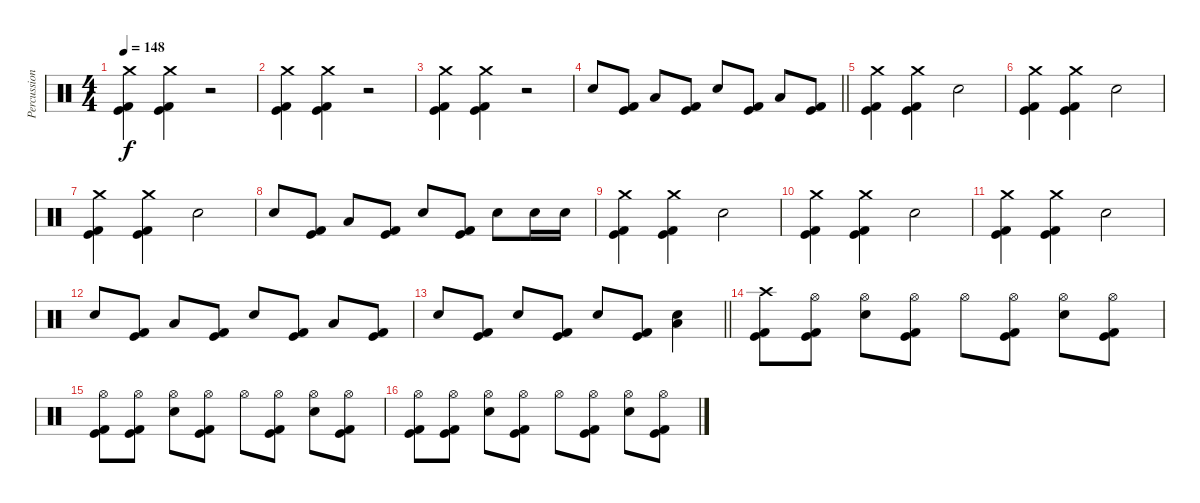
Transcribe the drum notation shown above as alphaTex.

\track ("Percussion" "Percussion") {instrument percussion}
\staff {score}
\articulation defaults
\ts (4 4)
\tempo 148
\clef neutral
\ks c
("Crash medium (hit)" "Kick (hit)" "Kick (hit) 2").4{dy f} ("Crash medium (hit)" "Kick (hit)" "Kick (hit) 2").4 r.2 |
("Crash medium (hit)" "Kick (hit)" "Kick (hit) 2").4 ("Crash medium (hit)" "Kick (hit)" "Kick (hit) 2").4 r.2 |
("Crash medium (hit)" "Kick (hit)" "Kick (hit) 2").4 ("Crash medium (hit)" "Kick (hit)" "Kick (hit) 2").4 r.2 |
\barLineRight lightlight "Electric Snare (hit)".8
("Kick (hit)" "Kick (hit) 2").8 "Low Floor Tom (hit)".8 ("Kick (hit)" "Kick (hit) 2").8 "Electric Snare (hit)".8 ("Kick (hit)" "Kick (hit) 2").8 "Low Floor Tom (hit)".8 ("Kick (hit)" "Kick (hit) 2").8 |
\section ("" "")
("Crash medium (hit)" "Kick (hit)" "Kick (hit) 2").4 ("Crash medium (hit)" "Kick (hit)" "Kick (hit) 2").4 "Electric Snare (hit)".2 |
("Crash medium (hit)" "Kick (hit)" "Kick (hit) 2").4 ("Crash medium (hit)" "Kick (hit)" "Kick (hit) 2").4 "Electric Snare (hit)".2 |
("Crash medium (hit)" "Kick (hit)" "Kick (hit) 2").4 ("Crash medium (hit)" "Kick (hit)" "Kick (hit) 2").4 "Electric Snare (hit)".2 |
"Electric Snare (hit)".8 ("Kick (hit)" "Kick (hit) 2").8 "Low Floor Tom (hit)".8 ("Kick (hit)" "Kick (hit) 2").8 "Electric Snare (hit)".8 ("Kick (hit)" "Kick (hit) 2").8 "Electric Snare (hit)".8 "Electric Snare (hit)".16 "Electric Snare (hit)".16 |
("Crash medium (hit)" "Kick (hit)" "Kick (hit) 2").4 ("Crash medium (hit)" "Kick (hit)" "Kick (hit) 2").4 "Electric Snare (hit)".2 |
("Crash medium (hit)" "Kick (hit)" "Kick (hit) 2").4 ("Crash medium (hit)" "Kick (hit)" "Kick (hit) 2").4 "Electric Snare (hit)".2 |
("Crash medium (hit)" "Kick (hit)" "Kick (hit) 2").4 ("Crash medium (hit)" "Kick (hit)" "Kick (hit) 2").4 "Electric Snare (hit)".2 |
"Electric Snare (hit)".8 ("Kick (hit)" "Kick (hit) 2").8 "Low Floor Tom (hit)".8 ("Kick (hit)" "Kick (hit) 2").8 "Electric Snare (hit)".8 ("Kick (hit)" "Kick (hit) 2").8 "Low Floor Tom (hit)".8 ("Kick (hit)" "Kick (hit) 2").8 |
\barLineRight lightlight "Electric Snare (hit)".8
("Kick (hit)" "Kick (hit) 2").8 "Electric Snare (hit)".8 ("Kick (hit)" "Kick (hit) 2").8 "Electric Snare (hit)".8 ("Kick (hit)" "Kick (hit) 2").8 ("Electric Snare (hit)" "Low Floor Tom (hit)").4 |
\section ("" "")
("Crash high (hit)" "Kick (hit)" "Kick (hit) 2").8 ("Hi-Hat (open)" "Kick (hit)" "Kick (hit) 2").8 ("Hi-Hat (open)" "Electric Snare (hit)").8 ("Hi-Hat (open)" "Kick (hit)" "Kick (hit) 2").8 "Hi-Hat (open)".8 ("Hi-Hat (open)" "Kick (hit)" "Kick (hit) 2").8 ("Hi-Hat (open)" "Electric Snare (hit)").8 ("Hi-Hat (open)" "Kick (hit)" "Kick (hit) 2").8 |
("Hi-Hat (open)" "Kick (hit)" "Kick (hit) 2").8 ("Hi-Hat (open)" "Kick (hit)" "Kick (hit) 2").8 ("Hi-Hat (open)" "Electric Snare (hit)").8 ("Hi-Hat (open)" "Kick (hit)" "Kick (hit) 2").8 "Hi-Hat (open)".8 ("Hi-Hat (open)" "Kick (hit)" "Kick (hit) 2").8 ("Hi-Hat (open)" "Electric Snare (hit)").8 ("Hi-Hat (open)" "Kick (hit)" "Kick (hit) 2").8 |
("Hi-Hat (open)" "Kick (hit)" "Kick (hit) 2").8 ("Hi-Hat (open)" "Kick (hit)" "Kick (hit) 2").8 ("Hi-Hat (open)" "Electric Snare (hit)").8 ("Hi-Hat (open)" "Kick (hit)" "Kick (hit) 2").8 "Hi-Hat (open)".8 ("Hi-Hat (open)" "Kick (hit)" "Kick (hit) 2").8 ("Hi-Hat (open)" "Electric Snare (hit)").8 ("Hi-Hat (open)" "Kick (hit)" "Kick (hit) 2").8
